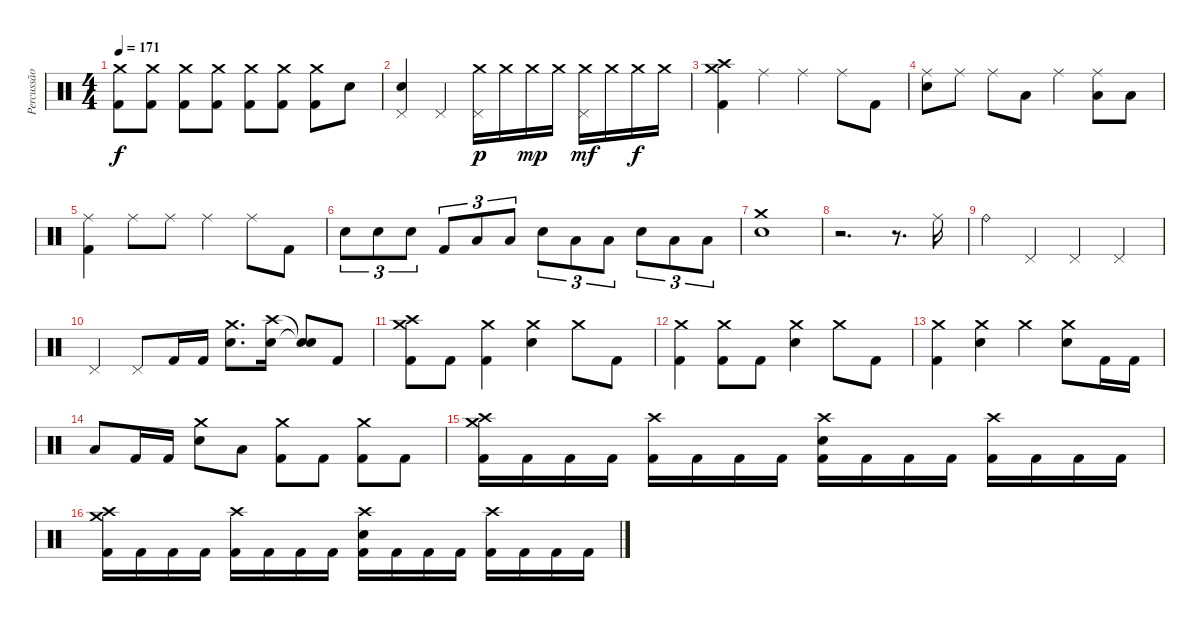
\track ("Percussão" "Percussão") {instrument percussion}
\staff {score}
\articulation defaults
\ts (4 4)
\tempo 171
\clef neutral
\ks c
("Crash medium (hit)" "Kick (hit) 2").8{dy f} ("Crash medium (hit)" "Kick (hit) 2").8 ("Crash medium (hit)" "Kick (hit) 2").8 ("Crash medium (hit)" "Kick (hit) 2").8 ("Crash medium (hit)" "Kick (hit) 2").8 ("Crash medium (hit)" "Kick (hit) 2").8 ("Crash medium (hit)" "Kick (hit) 2").8 "Electric Snare (hit)".8 |
("Pedal Hi-Hat (hit)" "Electric Snare (hit)").4 "Pedal Hi-Hat (hit)".4 ("Crash medium (hit)" "Pedal Hi-Hat (hit)").16{dy p} "Crash medium (hit)".16 "Crash medium (hit)".16{dy mp} "Crash medium (hit)".16 ("Crash medium (hit)" "Pedal Hi-Hat (hit)").16{dy mf} "Crash medium (hit)".16 "Crash medium (hit)".16{dy f} "Crash medium (hit)".16 |
("Crash medium (hit)" "Crash high (hit)" "Kick (hit) 2").4 "Ride (middle)".4 "Ride (middle)".4 "Ride (middle)".8 "Kick (hit) 2".8 |
("Ride (middle)" "Electric Snare (hit)").8 "Ride (middle)".8 "Ride (middle)".8 "Low Tom (hit)".8 "Ride (middle)".4 ("Low Floor Tom (hit)" "Ride (middle)").8 "Low Floor Tom (hit)".8 |
("Ride (middle)" "Kick (hit) 2").4 "Ride (middle)".8 "Ride (middle)".8 "Ride (middle)".4 "Ride (middle)".8 "Kick (hit) 2".8 |
"Electric Snare (hit)".8{tu (3 2)} "Electric Snare (hit)".8{tu (3 2)} "Electric Snare (hit)".8{tu (3 2)} "Kick (hit) 2".8{tu (3 2)} "Low Tom (hit)".8{tu (3 2)} "Low Floor Tom (hit)".8{tu (3 2)} "Electric Snare (hit)".8{tu (3 2)} "Low Tom (hit)".8{tu (3 2)} "Low Floor Tom (hit)".8{tu (3 2)} "Electric Snare (hit)".8{tu (3 2)} "Low Tom (hit)".8{tu (3 2)} "Low Floor Tom (hit)".8{tu (3 2)} |
("Crash medium (hit)" "Electric Snare (hit)").1 |
r.2{d} r.8{d} "Ride (middle)".16 |
"Ride (bell)".4 "Pedal Hi-Hat (hit)".4 "Pedal Hi-Hat (hit)".4 "Pedal Hi-Hat (hit)".4 |
"Pedal Hi-Hat (hit)".4 "Pedal Hi-Hat (hit)".8 "Kick (hit) 2".16 "Kick (hit) 2".16 ("Crash medium (hit)" "Electric Snare (hit)").8{d} ("Crash high (hit)" "Electric Snare (hit)").16 ("Snare (hit)"{t} "Snare (hit)"{t}).8 "Kick (hit) 2".8 |
("Crash medium (hit)" "Crash high (hit)" "Kick (hit) 2").8 "Kick (hit) 2".8 ("Crash medium (hit)" "Kick (hit) 2").4 ("Crash medium (hit)" "Electric Snare (hit)").4 "Crash medium (hit)".8 "Kick (hit) 2".8 |
("Crash medium (hit)" "Kick (hit) 2").4 ("Crash medium (hit)" "Kick (hit) 2").8 "Kick (hit) 2".8 ("Crash medium (hit)" "Electric Snare (hit)").4 "Crash medium (hit)".8 "Kick (hit) 2".8 |
("Crash medium (hit)" "Kick (hit) 2").4 ("Crash medium (hit)" "Electric Snare (hit)").4 "Crash medium (hit)".4 ("Crash medium (hit)" "Electric Snare (hit)").8 "Kick (hit) 2".16 "Kick (hit) 2".16 |
"Low Tom (hit)".8 "Kick (hit) 2".16 "Kick (hit) 2".16 ("Crash medium (hit)" "Electric Snare (hit)").8 "Low Floor Tom (hit)".8 ("Crash medium (hit)" "Kick (hit) 2").8 "Kick (hit) 2".8 ("Crash medium (hit)" "Kick (hit) 2").8 "Kick (hit) 2".8 |
("Crash high (hit)" "Crash medium (hit)" "Kick (hit) 2").16 "Kick (hit) 2".16 "Kick (hit) 2".16 "Kick (hit) 2".16 ("Crash high (hit)" "Kick (hit) 2").16 "Kick (hit) 2".16 "Kick (hit) 2".16 "Kick (hit) 2".16 ("Crash high (hit)" "Electric Snare (hit)" "Kick (hit) 2").16 "Kick (hit) 2".16 "Kick (hit) 2".16 "Kick (hit) 2".16 ("Crash high (hit)" "Kick (hit) 2").16 "Kick (hit) 2".16 "Kick (hit) 2".16 "Kick (hit) 2".16 |
("Crash high (hit)" "Crash medium (hit)" "Kick (hit) 2").16 "Kick (hit) 2".16 "Kick (hit) 2".16 "Kick (hit) 2".16 ("Crash high (hit)" "Kick (hit) 2").16 "Kick (hit) 2".16 "Kick (hit) 2".16 "Kick (hit) 2".16 ("Crash high (hit)" "Electric Snare (hit)" "Kick (hit) 2").16 "Kick (hit) 2".16 "Kick (hit) 2".16 "Kick (hit) 2".16 ("Crash high (hit)" "Kick (hit) 2").16 "Kick (hit) 2".16 "Kick (hit) 2".16 "Kick (hit) 2".16
